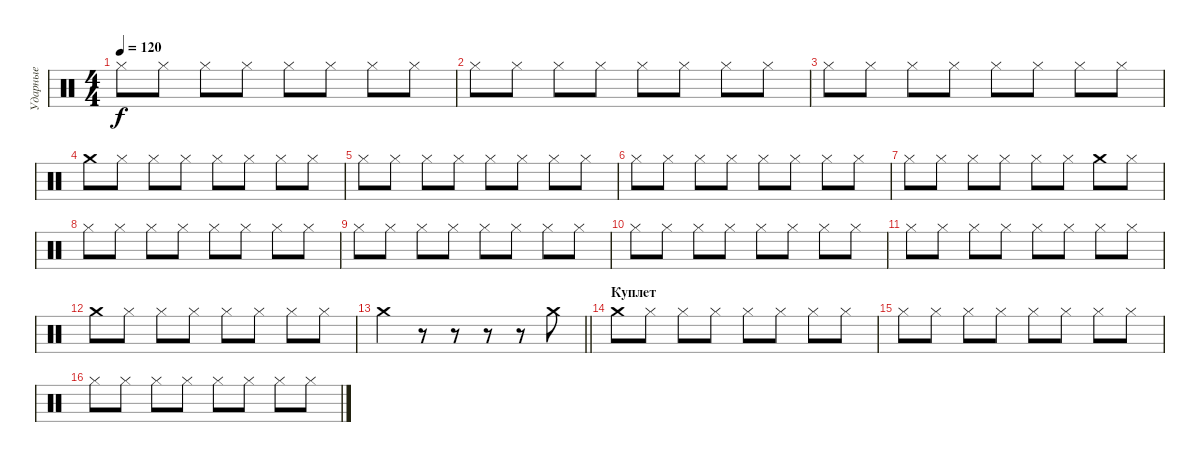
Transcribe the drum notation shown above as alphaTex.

\track ("Ударные" "Ударные") {instrument percussion}
\staff {score}
\articulation defaults
\ts (4 4)
\tempo 120
\clef neutral
\ks c "Hi-Hat (closed)".8{dy f} "Hi-Hat (closed)".8 "Hi-Hat (closed)".8 "Hi-Hat (closed)".8 "Hi-Hat (closed)".8 "Hi-Hat (closed)".8 "Hi-Hat (closed)".8 "Hi-Hat (closed)".8
|
"Hi-Hat (closed)".8 "Hi-Hat (closed)".8 "Hi-Hat (closed)".8 "Hi-Hat (closed)".8 "Hi-Hat (closed)".8 "Hi-Hat (closed)".8 "Hi-Hat (closed)".8 "Hi-Hat (closed)".8 |
"Hi-Hat (closed)".8 "Hi-Hat (closed)".8 "Hi-Hat (closed)".8 "Hi-Hat (closed)".8 "Hi-Hat (closed)".8 "Hi-Hat (closed)".8 "Hi-Hat (closed)".8 "Hi-Hat (closed)".8 |
"Crash medium (hit)".8 "Hi-Hat (closed)".8 "Hi-Hat (closed)".8 "Hi-Hat (closed)".8 "Hi-Hat (closed)".8 "Hi-Hat (closed)".8 "Hi-Hat (closed)".8 "Hi-Hat (closed)".8 |
"Hi-Hat (closed)".8 "Hi-Hat (closed)".8 "Hi-Hat (closed)".8 "Hi-Hat (closed)".8 "Hi-Hat (closed)".8 "Hi-Hat (closed)".8 "Hi-Hat (closed)".8 "Hi-Hat (closed)".8 |
"Hi-Hat (closed)".8 "Hi-Hat (closed)".8 "Hi-Hat (closed)".8 "Hi-Hat (closed)".8 "Hi-Hat (closed)".8 "Hi-Hat (closed)".8 "Hi-Hat (closed)".8 "Hi-Hat (closed)".8 |
"Hi-Hat (closed)".8 "Hi-Hat (closed)".8 "Hi-Hat (closed)".8 "Hi-Hat (closed)".8 "Hi-Hat (closed)".8 "Hi-Hat (closed)".8 "Crash medium (hit)".8 "Hi-Hat (closed)".8 |
"Hi-Hat (closed)".8 "Hi-Hat (closed)".8 "Hi-Hat (closed)".8 "Hi-Hat (closed)".8 "Hi-Hat (closed)".8 "Hi-Hat (closed)".8 "Hi-Hat (closed)".8 "Hi-Hat (closed)".8 |
"Hi-Hat (closed)".8 "Hi-Hat (closed)".8 "Hi-Hat (closed)".8 "Hi-Hat (closed)".8 "Hi-Hat (closed)".8 "Hi-Hat (closed)".8 "Hi-Hat (closed)".8 "Hi-Hat (closed)".8 |
"Hi-Hat (closed)".8 "Hi-Hat (closed)".8 "Hi-Hat (closed)".8 "Hi-Hat (closed)".8 "Hi-Hat (closed)".8 "Hi-Hat (closed)".8 "Hi-Hat (closed)".8 "Hi-Hat (closed)".8 |
"Hi-Hat (closed)".8 "Hi-Hat (closed)".8 "Hi-Hat (closed)".8 "Hi-Hat (closed)".8 "Hi-Hat (closed)".8 "Hi-Hat (closed)".8 "Hi-Hat (closed)".8 "Hi-Hat (closed)".8 |
"Crash medium (hit)".8 "Hi-Hat (closed)".8 "Hi-Hat (closed)".8 "Hi-Hat (closed)".8 "Hi-Hat (closed)".8 "Hi-Hat (closed)".8 "Hi-Hat (closed)".8 "Hi-Hat (closed)".8 |
\barLineRight lightlight "Crash medium (hit)".4
r.8 r.8 r.8 r.8 "Crash medium (hit)".8 |
\section ("" "Куплет")
"Crash medium (hit)".8 "Hi-Hat (closed)".8 "Hi-Hat (closed)".8 "Hi-Hat (closed)".8 "Hi-Hat (closed)".8 "Hi-Hat (closed)".8 "Hi-Hat (closed)".8 "Hi-Hat (closed)".8 |
"Hi-Hat (closed)".8 "Hi-Hat (closed)".8 "Hi-Hat (closed)".8 "Hi-Hat (closed)".8 "Hi-Hat (closed)".8 "Hi-Hat (closed)".8 "Hi-Hat (closed)".8 "Hi-Hat (closed)".8 |
"Hi-Hat (closed)".8 "Hi-Hat (closed)".8 "Hi-Hat (closed)".8 "Hi-Hat (closed)".8 "Hi-Hat (closed)".8 "Hi-Hat (closed)".8 "Hi-Hat (closed)".8 "Hi-Hat (closed)".8
